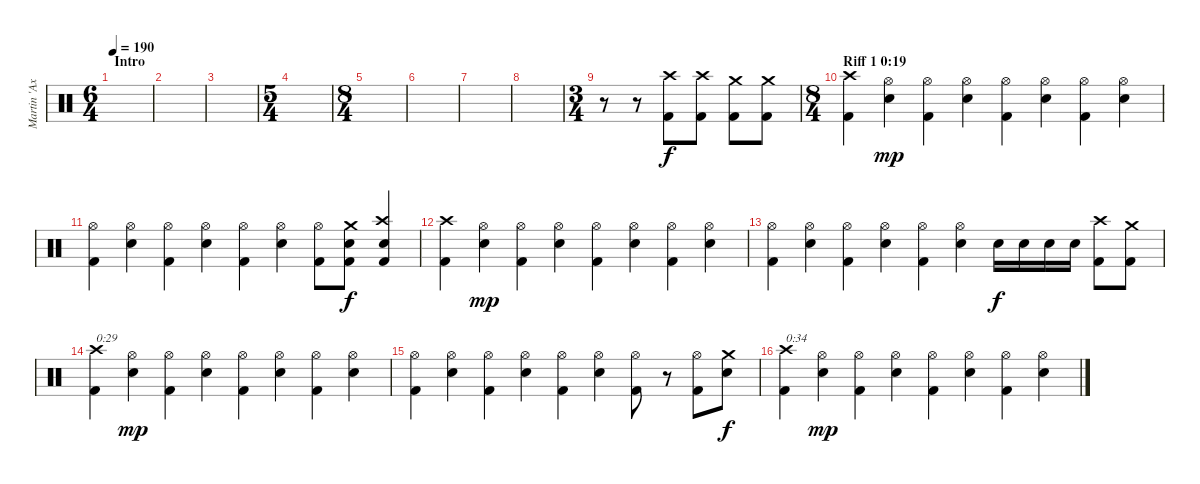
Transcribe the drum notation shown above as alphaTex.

\track ("Martin 'Axe' Axenroth" "Martin 'Ax") {instrument percussion}
\staff {score}
\articulation defaults
\ts (6 4)
\section ("" "Intro")
\tempo 190
\clef neutral
\ks c
|
|
|
\ts (5 4)
|
\ts (8 4)
|
|
|
|
\ts (3 4)
r.8 r.8 ("Kick (hit) 2" "Crash high (hit)").8 ("Kick (hit) 2" "Crash high (hit)").8 ("Kick (hit) 2" "Crash medium (hit)").8 ("Kick (hit) 2" "Crash medium (hit)").8 |
\ts (8 4)
\section ("" "Riff 1 0:19")
("Kick (hit) 2" "Crash high (hit)").4 ("Electric Snare (hit)" "Hi-Hat (open)").4{dy mp} ("Kick (hit) 2" "Hi-Hat (open)").4 ("Electric Snare (hit)" "Hi-Hat (open)").4 ("Kick (hit) 2" "Hi-Hat (open)").4 ("Electric Snare (hit)" "Hi-Hat (open)").4 ("Kick (hit) 2" "Hi-Hat (open)").4 ("Electric Snare (hit)" "Hi-Hat (open)").4 |
("Kick (hit) 2" "Hi-Hat (open)").4 ("Electric Snare (hit)" "Hi-Hat (open)").4 ("Kick (hit) 2" "Hi-Hat (open)").4 ("Electric Snare (hit)" "Hi-Hat (open)").4 ("Kick (hit) 2" "Hi-Hat (open)").4 ("Electric Snare (hit)" "Hi-Hat (open)").4 ("Kick (hit) 2" "Hi-Hat (open)").8 ("Kick (hit) 2" "Electric Snare (hit)" "Crash medium (hit)").8{dy f} ("Kick (hit) 2" "Electric Snare (hit)" "Crash high (hit)").4 |
("Kick (hit) 2" "Crash high (hit)").4 ("Electric Snare (hit)" "Hi-Hat (open)").4{dy mp} ("Kick (hit) 2" "Hi-Hat (open)").4 ("Electric Snare (hit)" "Hi-Hat (open)").4 ("Kick (hit) 2" "Hi-Hat (open)").4 ("Electric Snare (hit)" "Hi-Hat (open)").4 ("Kick (hit) 2" "Hi-Hat (open)").4 ("Electric Snare (hit)" "Hi-Hat (open)").4 |
("Kick (hit) 2" "Hi-Hat (open)").4 ("Electric Snare (hit)" "Hi-Hat (open)").4 ("Kick (hit) 2" "Hi-Hat (open)").4 ("Electric Snare (hit)" "Hi-Hat (open)").4 ("Kick (hit) 2" "Hi-Hat (open)").4 ("Electric Snare (hit)" "Hi-Hat (open)").4 "Electric Snare (hit)".16{dy f} "Electric Snare (hit)".16 "Electric Snare (hit)".16 "Electric Snare (hit)".16 ("Kick (hit) 2" "Crash high (hit)").8 ("Kick (hit) 2" "Crash medium (hit)").8 |
("Kick (hit) 2" "Crash high (hit)").4{txt "0:29"} ("Electric Snare (hit)" "Hi-Hat (open)").4{dy mp} ("Kick (hit) 2" "Hi-Hat (open)").4 ("Electric Snare (hit)" "Hi-Hat (open)").4 ("Kick (hit) 2" "Hi-Hat (open)").4 ("Electric Snare (hit)" "Hi-Hat (open)").4 ("Kick (hit) 2" "Hi-Hat (open)").4 ("Electric Snare (hit)" "Hi-Hat (open)").4 |
("Kick (hit) 2" "Hi-Hat (open)").4 ("Electric Snare (hit)" "Hi-Hat (open)").4 ("Kick (hit) 2" "Hi-Hat (open)").4 ("Electric Snare (hit)" "Hi-Hat (open)").4 ("Kick (hit) 2" "Hi-Hat (open)").4 ("Electric Snare (hit)" "Hi-Hat (open)").4 ("Kick (hit) 2" "Hi-Hat (open)").8 r.8 ("Kick (hit) 2" "Hi-Hat (open)").8 ("Electric Snare (hit)" "Crash medium (hit)").8{dy f} |
("Kick (hit) 2" "Crash high (hit)").4{txt "0:34"} ("Electric Snare (hit)" "Hi-Hat (open)").4{dy mp} ("Kick (hit) 2" "Hi-Hat (open)").4 ("Electric Snare (hit)" "Hi-Hat (open)").4 ("Kick (hit) 2" "Hi-Hat (open)").4 ("Electric Snare (hit)" "Hi-Hat (open)").4 ("Kick (hit) 2" "Hi-Hat (open)").4 ("Electric Snare (hit)" "Hi-Hat (open)").4
